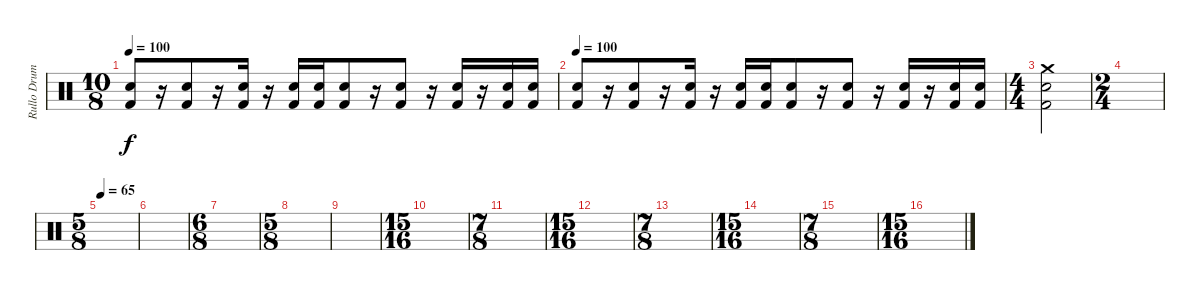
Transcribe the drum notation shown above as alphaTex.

\track ("Rullo Drums" "Rullo Drum") {instrument percussion}
\staff {score}
\articulation defaults
\ts (10 8)
\tempo 100
\clef neutral
\ks c
("Kick (hit) 2" "Snare (hit) 2").8{dy f} r.16 ("Kick (hit) 2" "Snare (hit) 2").8 r.16 ("Kick (hit) 2" "Snare (hit) 2").16 r.16 ("Kick (hit) 2" "Snare (hit) 2").16 ("Kick (hit) 2" "Snare (hit) 2").16 ("Kick (hit) 2" "Snare (hit) 2").8 r.16 ("Kick (hit) 2" "Snare (hit) 2").8 r.16 ("Kick (hit) 2" "Snare (hit) 2").16 r.16 ("Kick (hit) 2" "Snare (hit) 2").16 ("Kick (hit) 2" "Snare (hit) 2").16 |
\tempo 100
("Kick (hit) 2" "Snare (hit) 2").8 r.16 ("Kick (hit) 2" "Snare (hit) 2").8 r.16 ("Kick (hit) 2" "Snare (hit) 2").16 r.16 ("Kick (hit) 2" "Snare (hit) 2").16 ("Kick (hit) 2" "Snare (hit) 2").16 ("Kick (hit) 2" "Snare (hit) 2").8 r.16 ("Kick (hit) 2" "Snare (hit) 2").8 r.16 ("Kick (hit) 2" "Snare (hit) 2").16 r.16 ("Kick (hit) 2" "Snare (hit) 2").16 ("Kick (hit) 2" "Snare (hit) 2").16 |
\ts (4 4)
("Kick (hit) 2" "Snare (hit) 2" "Crash medium (hit)").2 |
\ts (2 4)
|
\ts (5 8)
\tempo 65
|
|
\ts (6 8)
|
\ts (5 8)
|
|
\ts (15 16)
|
\ts (7 8)
|
\ts (15 16)
|
\ts (7 8)
|
\ts (15 16)
|
\ts (7 8)
|
\ts (15 16)
